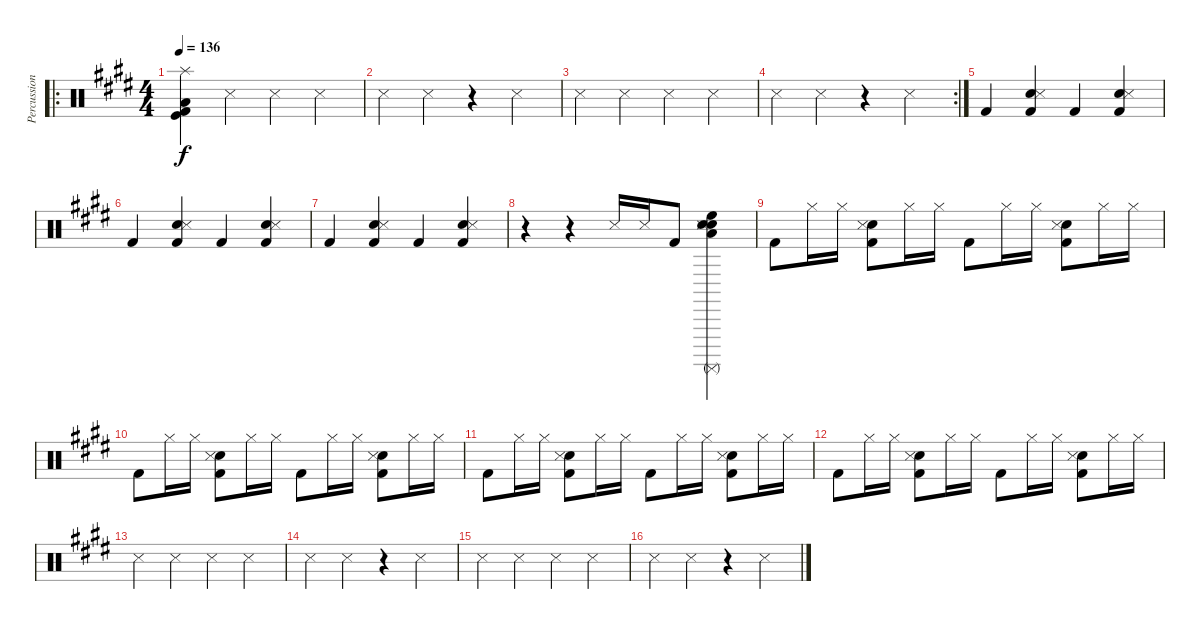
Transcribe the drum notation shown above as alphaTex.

\track ("Percussion" "Percussion") {instrument percussion}
\staff {score}
\articulation defaults
\ro
\ts (4 4)
\tempo 136
\clef neutral
\ks e
("Splash (hit)" "Low Tom (hit)" "Kick (hit) 2" "Kick (hit)").4{dy f} "Snare (side stick) 3".4 "Snare (side stick) 3".4 "Snare (side stick) 3".4 |
"Snare (side stick) 3".4 "Snare (side stick) 3".4 r.4 "Snare (side stick) 3".4 |
"Snare (side stick) 3".4 "Snare (side stick) 3".4 "Snare (side stick) 3".4 "Snare (side stick) 3".4 |
\rc 2 "Snare (side stick) 3".4 "Snare (side stick) 3".4
r.4 "Snare (side stick) 3".4 |
"Kick (hit) 2".4 ("Hand Clap (hit)" "Snare (side stick) 3" "Kick (hit) 2").4 "Kick (hit) 2".4 ("Hand Clap (hit)" "Snare (side stick) 3" "Kick (hit) 2").4 |
"Kick (hit) 2".4 ("Hand Clap (hit)" "Snare (side stick) 3" "Kick (hit) 2").4 "Kick (hit) 2".4 ("Hand Clap (hit)" "Snare (side stick) 3" "Kick (hit) 2").4 |
"Kick (hit) 2".4 ("Hand Clap (hit)" "Snare (side stick) 3" "Kick (hit) 2").4 "Kick (hit) 2".4 ("Hand Clap (hit)" "Snare (side stick) 3" "Kick (hit) 2").4 |
r.4 r.4 "Snare (side stick) 3".16 "Snare (side stick) 3".16 "Kick (hit) 2".8 ("Low Tom (hit)" "Surdo (mute)" "Electric Snare (hit)" "Hand Clap (hit)" "Snare (side stick) 3" "High Floor Tom (hit)").4 |
"Kick (hit) 2".8 "Hi-Hat (closed)".16 "Hi-Hat (closed)".16 ("Hand Clap (hit)" "Snare (side stick) 3" "Kick (hit) 2").8 "Hi-Hat (closed)".16 "Hi-Hat (closed)".16 "Kick (hit) 2".8 "Hi-Hat (closed)".16 "Hi-Hat (closed)".16 ("Hand Clap (hit)" "Snare (side stick) 3" "Kick (hit) 2").8 "Hi-Hat (closed)".16 "Hi-Hat (closed)".16 |
"Kick (hit) 2".8 "Hi-Hat (closed)".16 "Hi-Hat (closed)".16 ("Hand Clap (hit)" "Snare (side stick) 3" "Kick (hit) 2").8 "Hi-Hat (closed)".16 "Hi-Hat (closed)".16 "Kick (hit) 2".8 "Hi-Hat (closed)".16 "Hi-Hat (closed)".16 ("Hand Clap (hit)" "Snare (side stick) 3" "Kick (hit) 2").8 "Hi-Hat (closed)".16 "Hi-Hat (closed)".16 |
"Kick (hit) 2".8 "Hi-Hat (closed)".16 "Hi-Hat (closed)".16 ("Hand Clap (hit)" "Snare (side stick) 3" "Kick (hit) 2").8 "Hi-Hat (closed)".16 "Hi-Hat (closed)".16 "Kick (hit) 2".8 "Hi-Hat (closed)".16 "Hi-Hat (closed)".16 ("Hand Clap (hit)" "Snare (side stick) 3" "Kick (hit) 2").8 "Hi-Hat (closed)".16 "Hi-Hat (closed)".16 |
"Kick (hit) 2".8 "Hi-Hat (closed)".16 "Hi-Hat (closed)".16 ("Hand Clap (hit)" "Snare (side stick) 3" "Kick (hit) 2").8 "Hi-Hat (closed)".16 "Hi-Hat (closed)".16 "Kick (hit) 2".8 "Hi-Hat (closed)".16 "Hi-Hat (closed)".16 ("Hand Clap (hit)" "Snare (side stick) 3" "Kick (hit) 2").8 "Hi-Hat (closed)".16 "Hi-Hat (closed)".16 |
"Snare (side stick) 3".4 "Snare (side stick) 3".4 "Snare (side stick) 3".4 "Snare (side stick) 3".4 |
"Snare (side stick) 3".4 "Snare (side stick) 3".4 r.4 "Snare (side stick) 3".4 |
"Snare (side stick) 3".4 "Snare (side stick) 3".4 "Snare (side stick) 3".4 "Snare (side stick) 3".4 |
"Snare (side stick) 3".4 "Snare (side stick) 3".4 r.4 "Snare (side stick) 3".4
